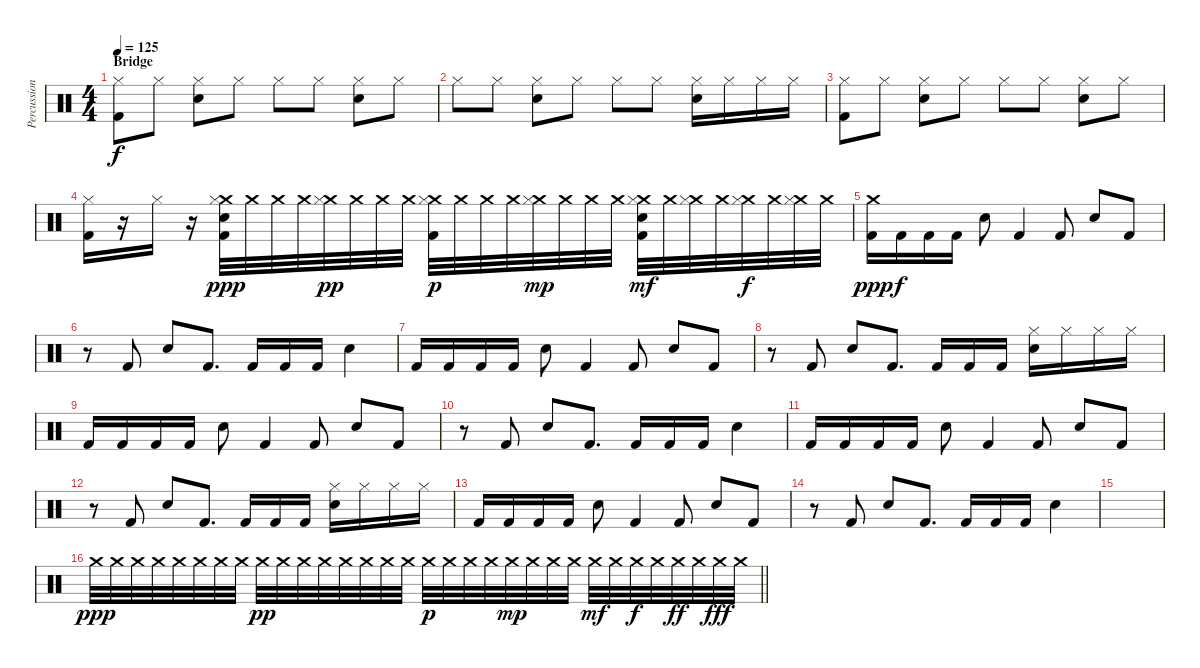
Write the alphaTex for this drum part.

\track ("Percussion" "Percussion") {instrument percussion}
\staff {score}
\articulation defaults
\ts (4 4)
\section ("" "Bridge")
\tempo 125
\clef neutral
\ks c
("Hi-Hat (closed)" "Kick (hit) 2").8{dy f} "Hi-Hat (closed)".8 ("Hi-Hat (closed)" "Electric Snare (hit)").8 "Hi-Hat (closed)".8 "Hi-Hat (closed)".8 "Hi-Hat (closed)".8 ("Hi-Hat (closed)" "Electric Snare (hit)").8 "Hi-Hat (closed)".8 |
"Hi-Hat (closed)".8 "Hi-Hat (closed)".8 ("Hi-Hat (closed)" "Electric Snare (hit)").8 "Hi-Hat (closed)".8 "Hi-Hat (closed)".8 "Hi-Hat (closed)".8 ("Hi-Hat (closed)" "Electric Snare (hit)").16 "Hi-Hat (closed)".16 "Hi-Hat (closed)".16 "Hi-Hat (closed)".16 |
("Hi-Hat (closed)" "Kick (hit) 2").8 "Hi-Hat (closed)".8 ("Hi-Hat (closed)" "Electric Snare (hit)").8 "Hi-Hat (closed)".8 "Hi-Hat (closed)".8 "Hi-Hat (closed)".8 ("Hi-Hat (closed)" "Electric Snare (hit)").8 "Hi-Hat (closed)".8 |
("Hi-Hat (closed)" "Kick (hit) 2").16 r.16 "Hi-Hat (closed)".16 r.16 ("Crash medium (hit)" "Hi-Hat (closed)" "Electric Snare (hit)" "Kick (hit) 2").32{dy ppp} "Crash medium (hit)".32 "Crash medium (hit)".32 "Crash medium (hit)".32 ("Crash medium (hit)" "Hi-Hat (closed)").32{dy pp} "Crash medium (hit)".32 "Crash medium (hit)".32 "Crash medium (hit)".32 ("Crash medium (hit)" "Hi-Hat (closed)" "Kick (hit) 2").32{dy p} "Crash medium (hit)".32 "Crash medium (hit)".32 "Crash medium (hit)".32 ("Crash medium (hit)" "Hi-Hat (closed)").32{dy mp} "Crash medium (hit)".32 "Crash medium (hit)".32 "Crash medium (hit)".32 ("Crash medium (hit)" "Hi-Hat (closed)" "Electric Snare (hit)" "Kick (hit) 2").32{dy mf} "Crash medium (hit)".32 ("Crash medium (hit)" "Hi-Hat (closed)").32 "Crash medium (hit)".32 ("Crash medium (hit)" "Hi-Hat (closed)").32{dy f} "Crash medium (hit)".32 ("Crash medium (hit)" "Hi-Hat (closed)").32 "Crash medium (hit)".32 |
("Crash medium (hit)" "Kick (hit) 2").16{dy ppp} "Kick (hit) 2".16{dy f} "Kick (hit) 2".16 "Kick (hit) 2".16 "Electric Snare (hit)".8 "Kick (hit) 2".4 "Kick (hit) 2".8 "Electric Snare (hit)".8 "Kick (hit) 2".8 |
r.8 "Kick (hit) 2".8 "Electric Snare (hit)".8 "Kick (hit) 2".8{d} "Kick (hit) 2".16 "Kick (hit) 2".16 "Kick (hit) 2".16 "Electric Snare (hit)".4 |
"Kick (hit) 2".16 "Kick (hit) 2".16 "Kick (hit) 2".16 "Kick (hit) 2".16 "Electric Snare (hit)".8 "Kick (hit) 2".4 "Kick (hit) 2".8 "Electric Snare (hit)".8 "Kick (hit) 2".8 |
r.8 "Kick (hit) 2".8 "Electric Snare (hit)".8 "Kick (hit) 2".8{d} "Kick (hit) 2".16 "Kick (hit) 2".16 "Kick (hit) 2".16 ("Hi-Hat (closed)" "Electric Snare (hit)").16 "Hi-Hat (closed)".16 "Hi-Hat (closed)".16 "Hi-Hat (closed)".16 |
"Kick (hit) 2".16 "Kick (hit) 2".16 "Kick (hit) 2".16 "Kick (hit) 2".16 "Electric Snare (hit)".8 "Kick (hit) 2".4 "Kick (hit) 2".8 "Electric Snare (hit)".8 "Kick (hit) 2".8 |
r.8 "Kick (hit) 2".8 "Electric Snare (hit)".8 "Kick (hit) 2".8{d} "Kick (hit) 2".16 "Kick (hit) 2".16 "Kick (hit) 2".16 "Electric Snare (hit)".4 |
"Kick (hit) 2".16 "Kick (hit) 2".16 "Kick (hit) 2".16 "Kick (hit) 2".16 "Electric Snare (hit)".8 "Kick (hit) 2".4 "Kick (hit) 2".8 "Electric Snare (hit)".8 "Kick (hit) 2".8 |
r.8 "Kick (hit) 2".8 "Electric Snare (hit)".8 "Kick (hit) 2".8{d} "Kick (hit) 2".16 "Kick (hit) 2".16 "Kick (hit) 2".16 ("Hi-Hat (closed)" "Electric Snare (hit)").16 "Hi-Hat (closed)".16 "Hi-Hat (closed)".16 "Hi-Hat (closed)".16 |
"Kick (hit) 2".16 "Kick (hit) 2".16 "Kick (hit) 2".16 "Kick (hit) 2".16 "Electric Snare (hit)".8 "Kick (hit) 2".4 "Kick (hit) 2".8 "Electric Snare (hit)".8 "Kick (hit) 2".8 |
r.8 "Kick (hit) 2".8 "Electric Snare (hit)".8 "Kick (hit) 2".8{d} "Kick (hit) 2".16 "Kick (hit) 2".16 "Kick (hit) 2".16 "Electric Snare (hit)".4 |
|
\barLineRight lightlight "Crash medium (hit)".32{dy ppp} "Crash medium (hit)".32 "Crash medium (hit)".32 "Crash medium (hit)".32 "Crash medium (hit)".32 "Crash medium (hit)".32 "Crash medium (hit)".32 "Crash medium (hit)".32 "Crash medium (hit)".32{dy pp} "Crash medium (hit)".32 "Crash medium (hit)".32 "Crash medium (hit)".32 "Crash medium (hit)".32 "Crash medium (hit)".32 "Crash medium (hit)".32 "Crash medium (hit)".32 "Crash medium (hit)".32{dy p} "Crash medium (hit)".32 "Crash medium (hit)".32 "Crash medium (hit)".32 "Crash medium (hit)".32{dy mp} "Crash medium (hit)".32 "Crash medium (hit)".32 "Crash medium (hit)".32 "Crash medium (hit)".32{dy mf} "Crash medium (hit)".32 "Crash medium (hit)".32{dy f} "Crash medium (hit)".32 "Crash medium (hit)".32{dy ff} "Crash medium (hit)".32 "Crash medium (hit)".32{dy fff} "Crash medium (hit)".32
